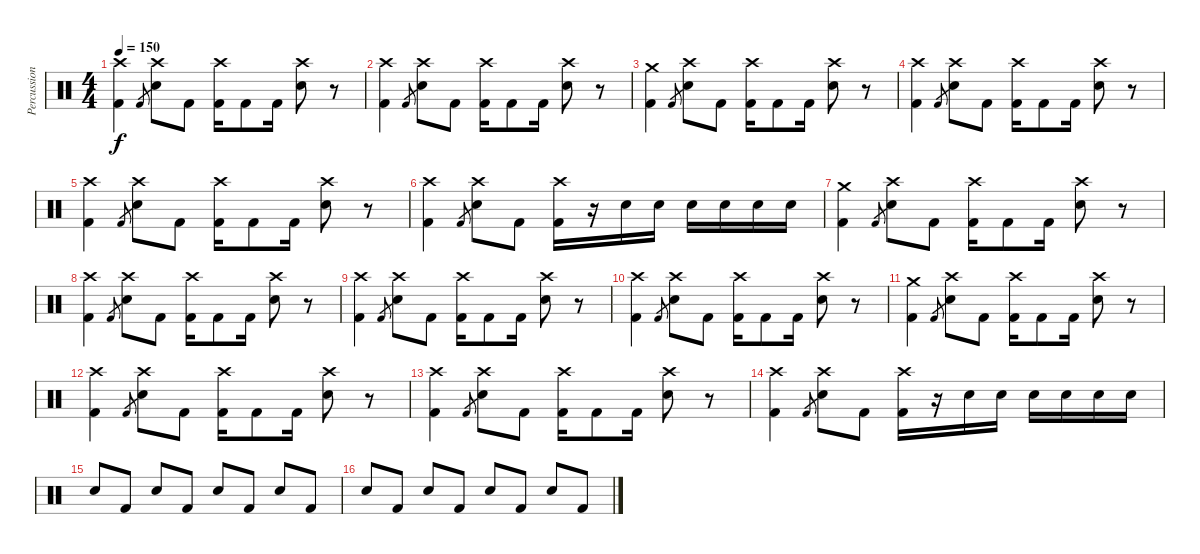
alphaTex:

\track ("Percussion" "Percussion") {instrument percussion}
\staff {score}
\articulation defaults
\ts (4 4)
\tempo 150
\clef neutral
\ks c
("Crash high (hit)" "Kick (hit) 2").4{dy f} "Kick (hit) 2".8{gr} ("Crash high (hit)" "Snare (hit) 2").8 "Kick (hit) 2".8 ("Crash high (hit)" "Kick (hit) 2").16 "Kick (hit) 2".8 "Kick (hit) 2".16 ("Crash high (hit)" "Snare (hit) 2").8 r.8 |
("Crash high (hit)" "Kick (hit) 2").4 "Kick (hit) 2".8{gr} ("Crash high (hit)" "Snare (hit) 2").8 "Kick (hit) 2".8 ("Crash high (hit)" "Kick (hit) 2").16 "Kick (hit) 2".8 "Kick (hit) 2".16 ("Crash high (hit)" "Snare (hit) 2").8 r.8 |
("Crash medium (hit)" "Kick (hit) 2").4 "Kick (hit) 2".8{gr} ("Crash high (hit)" "Snare (hit) 2").8 "Kick (hit) 2".8 ("Crash high (hit)" "Kick (hit) 2").16 "Kick (hit) 2".8 "Kick (hit) 2".16 ("Crash high (hit)" "Snare (hit) 2").8 r.8 |
("Crash high (hit)" "Kick (hit) 2").4 "Kick (hit) 2".8{gr} ("Crash high (hit)" "Snare (hit) 2").8 "Kick (hit) 2".8 ("Crash high (hit)" "Kick (hit) 2").16 "Kick (hit) 2".8 "Kick (hit) 2".16 ("Crash high (hit)" "Snare (hit) 2").8 r.8 |
("Crash high (hit)" "Kick (hit) 2").4 "Kick (hit) 2".8{gr} ("Crash high (hit)" "Snare (hit) 2").8 "Kick (hit) 2".8 ("Crash high (hit)" "Kick (hit) 2").16 "Kick (hit) 2".8 "Kick (hit) 2".16 ("Crash high (hit)" "Snare (hit) 2").8 r.8 |
("Crash high (hit)" "Kick (hit) 2").4 "Kick (hit) 2".8{gr} ("Crash high (hit)" "Snare (hit) 2").8 "Kick (hit) 2".8 ("Crash high (hit)" "Kick (hit) 2").16 r.16 "Snare (hit) 2".16 "Snare (hit) 2".16 "Snare (hit) 2".16 "Snare (hit) 2".16 "Snare (hit) 2".16 "Snare (hit) 2".16 |
("Crash medium (hit)" "Kick (hit) 2").4 "Kick (hit) 2".8{gr} ("Crash high (hit)" "Snare (hit) 2").8 "Kick (hit) 2".8 ("Crash high (hit)" "Kick (hit) 2").16 "Kick (hit) 2".8 "Kick (hit) 2".16 ("Crash high (hit)" "Snare (hit) 2").8 r.8 |
("Crash high (hit)" "Kick (hit) 2").4 "Kick (hit) 2".8{gr} ("Crash high (hit)" "Snare (hit) 2").8 "Kick (hit) 2".8 ("Crash high (hit)" "Kick (hit) 2").16 "Kick (hit) 2".8 "Kick (hit) 2".16 ("Crash high (hit)" "Snare (hit) 2").8 r.8 |
("Crash high (hit)" "Kick (hit) 2").4 "Kick (hit) 2".8{gr} ("Crash high (hit)" "Snare (hit) 2").8 "Kick (hit) 2".8 ("Crash high (hit)" "Kick (hit) 2").16 "Kick (hit) 2".8 "Kick (hit) 2".16 ("Crash high (hit)" "Snare (hit) 2").8 r.8 |
("Crash high (hit)" "Kick (hit) 2").4 "Kick (hit) 2".8{gr} ("Crash high (hit)" "Snare (hit) 2").8 "Kick (hit) 2".8 ("Crash high (hit)" "Kick (hit) 2").16 "Kick (hit) 2".8 "Kick (hit) 2".16 ("Crash high (hit)" "Snare (hit) 2").8 r.8 |
("Crash medium (hit)" "Kick (hit) 2").4 "Kick (hit) 2".8{gr} ("Crash high (hit)" "Snare (hit) 2").8 "Kick (hit) 2".8 ("Crash high (hit)" "Kick (hit) 2").16 "Kick (hit) 2".8 "Kick (hit) 2".16 ("Crash high (hit)" "Snare (hit) 2").8 r.8 |
("Crash high (hit)" "Kick (hit) 2").4 "Kick (hit) 2".8{gr} ("Crash high (hit)" "Snare (hit) 2").8 "Kick (hit) 2".8 ("Crash high (hit)" "Kick (hit) 2").16 "Kick (hit) 2".8 "Kick (hit) 2".16 ("Crash high (hit)" "Snare (hit) 2").8 r.8 |
("Crash high (hit)" "Kick (hit) 2").4 "Kick (hit) 2".8{gr} ("Crash high (hit)" "Snare (hit) 2").8 "Kick (hit) 2".8 ("Crash high (hit)" "Kick (hit) 2").16 "Kick (hit) 2".8 "Kick (hit) 2".16 ("Crash high (hit)" "Snare (hit) 2").8 r.8 |
("Crash high (hit)" "Kick (hit) 2").4 "Kick (hit) 2".8{gr} ("Crash high (hit)" "Snare (hit) 2").8 "Kick (hit) 2".8 ("Crash high (hit)" "Kick (hit) 2").16 r.16 "Snare (hit) 2".16 "Snare (hit) 2".16 "Snare (hit) 2".16 "Snare (hit) 2".16 "Snare (hit) 2".16 "Snare (hit) 2".16 |
"Snare (hit) 2".8 "Kick (hit) 2".8 "Snare (hit) 2".8 "Kick (hit) 2".8 "Snare (hit) 2".8 "Kick (hit) 2".8 "Snare (hit) 2".8 "Kick (hit) 2".8 |
"Snare (hit) 2".8 "Kick (hit) 2".8 "Snare (hit) 2".8 "Kick (hit) 2".8 "Snare (hit) 2".8 "Kick (hit) 2".8 "Snare (hit) 2".8 "Kick (hit) 2".8
